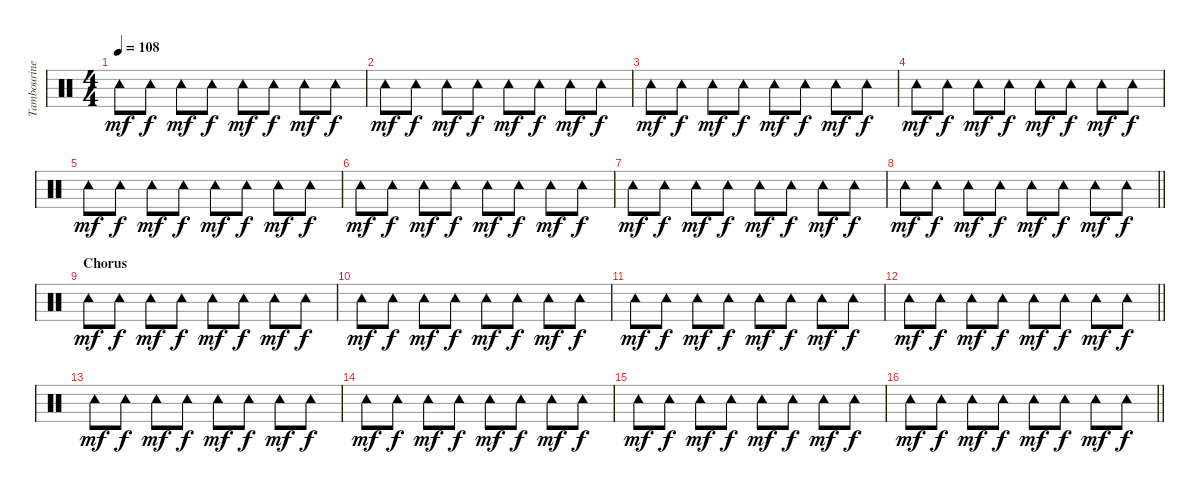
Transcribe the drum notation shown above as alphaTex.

\track ("Tambourine" "Tambourine") {instrument percussion}
\staff {score}
\articulation defaults
\ts (4 4)
\tempo 108
\clef neutral
\ks c "Tambourine (hit)".8{dy mf} "Tambourine (hit)".8{dy f} "Tambourine (hit)".8{dy mf} "Tambourine (hit)".8{dy f} "Tambourine (hit)".8{dy mf} "Tambourine (hit)".8{dy f} "Tambourine (hit)".8{dy mf} "Tambourine (hit)".8{dy f}
|
"Tambourine (hit)".8{dy mf} "Tambourine (hit)".8{dy f} "Tambourine (hit)".8{dy mf} "Tambourine (hit)".8{dy f} "Tambourine (hit)".8{dy mf} "Tambourine (hit)".8{dy f} "Tambourine (hit)".8{dy mf} "Tambourine (hit)".8{dy f} |
"Tambourine (hit)".8{dy mf} "Tambourine (hit)".8{dy f} "Tambourine (hit)".8{dy mf} "Tambourine (hit)".8{dy f} "Tambourine (hit)".8{dy mf} "Tambourine (hit)".8{dy f} "Tambourine (hit)".8{dy mf} "Tambourine (hit)".8{dy f} |
"Tambourine (hit)".8{dy mf} "Tambourine (hit)".8{dy f} "Tambourine (hit)".8{dy mf} "Tambourine (hit)".8{dy f} "Tambourine (hit)".8{dy mf} "Tambourine (hit)".8{dy f} "Tambourine (hit)".8{dy mf} "Tambourine (hit)".8{dy f} |
"Tambourine (hit)".8{dy mf} "Tambourine (hit)".8{dy f} "Tambourine (hit)".8{dy mf} "Tambourine (hit)".8{dy f} "Tambourine (hit)".8{dy mf} "Tambourine (hit)".8{dy f} "Tambourine (hit)".8{dy mf} "Tambourine (hit)".8{dy f} |
"Tambourine (hit)".8{dy mf} "Tambourine (hit)".8{dy f} "Tambourine (hit)".8{dy mf} "Tambourine (hit)".8{dy f} "Tambourine (hit)".8{dy mf} "Tambourine (hit)".8{dy f} "Tambourine (hit)".8{dy mf} "Tambourine (hit)".8{dy f} |
"Tambourine (hit)".8{dy mf} "Tambourine (hit)".8{dy f} "Tambourine (hit)".8{dy mf} "Tambourine (hit)".8{dy f} "Tambourine (hit)".8{dy mf} "Tambourine (hit)".8{dy f} "Tambourine (hit)".8{dy mf} "Tambourine (hit)".8{dy f} |
\barLineRight lightlight "Tambourine (hit)".8{dy mf} "Tambourine (hit)".8{dy f} "Tambourine (hit)".8{dy mf} "Tambourine (hit)".8{dy f} "Tambourine (hit)".8{dy mf} "Tambourine (hit)".8{dy f} "Tambourine (hit)".8{dy mf} "Tambourine (hit)".8{dy f}
|
\section ("" "Chorus")
"Tambourine (hit)".8{dy mf} "Tambourine (hit)".8{dy f} "Tambourine (hit)".8{dy mf} "Tambourine (hit)".8{dy f} "Tambourine (hit)".8{dy mf} "Tambourine (hit)".8{dy f} "Tambourine (hit)".8{dy mf} "Tambourine (hit)".8{dy f} |
"Tambourine (hit)".8{dy mf} "Tambourine (hit)".8{dy f} "Tambourine (hit)".8{dy mf} "Tambourine (hit)".8{dy f} "Tambourine (hit)".8{dy mf} "Tambourine (hit)".8{dy f} "Tambourine (hit)".8{dy mf} "Tambourine (hit)".8{dy f} |
"Tambourine (hit)".8{dy mf} "Tambourine (hit)".8{dy f} "Tambourine (hit)".8{dy mf} "Tambourine (hit)".8{dy f} "Tambourine (hit)".8{dy mf} "Tambourine (hit)".8{dy f} "Tambourine (hit)".8{dy mf} "Tambourine (hit)".8{dy f} |
\barLineRight lightlight "Tambourine (hit)".8{dy mf} "Tambourine (hit)".8{dy f} "Tambourine (hit)".8{dy mf} "Tambourine (hit)".8{dy f} "Tambourine (hit)".8{dy mf} "Tambourine (hit)".8{dy f} "Tambourine (hit)".8{dy mf} "Tambourine (hit)".8{dy f}
|
"Tambourine (hit)".8{dy mf} "Tambourine (hit)".8{dy f} "Tambourine (hit)".8{dy mf} "Tambourine (hit)".8{dy f} "Tambourine (hit)".8{dy mf} "Tambourine (hit)".8{dy f} "Tambourine (hit)".8{dy mf} "Tambourine (hit)".8{dy f} |
"Tambourine (hit)".8{dy mf} "Tambourine (hit)".8{dy f} "Tambourine (hit)".8{dy mf} "Tambourine (hit)".8{dy f} "Tambourine (hit)".8{dy mf} "Tambourine (hit)".8{dy f} "Tambourine (hit)".8{dy mf} "Tambourine (hit)".8{dy f} |
"Tambourine (hit)".8{dy mf} "Tambourine (hit)".8{dy f} "Tambourine (hit)".8{dy mf} "Tambourine (hit)".8{dy f} "Tambourine (hit)".8{dy mf} "Tambourine (hit)".8{dy f} "Tambourine (hit)".8{dy mf} "Tambourine (hit)".8{dy f} |
\barLineRight lightlight "Tambourine (hit)".8{dy mf} "Tambourine (hit)".8{dy f} "Tambourine (hit)".8{dy mf} "Tambourine (hit)".8{dy f} "Tambourine (hit)".8{dy mf} "Tambourine (hit)".8{dy f} "Tambourine (hit)".8{dy mf} "Tambourine (hit)".8{dy f}
